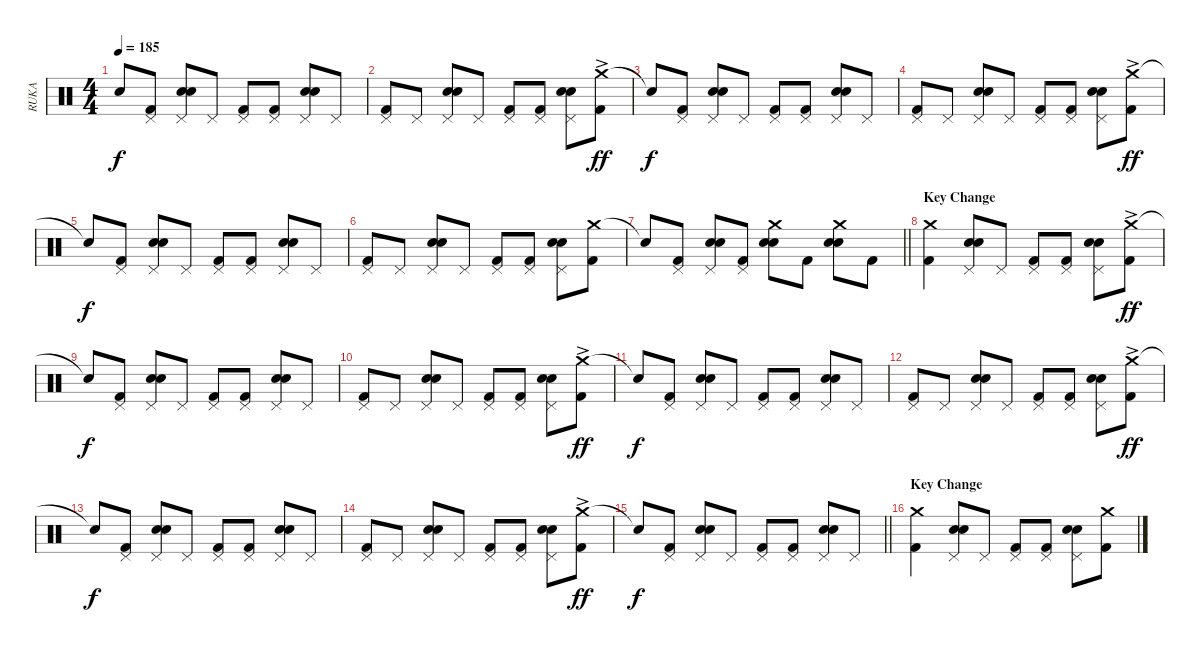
\track ("RUKA" "RUKA") {instrument percussion}
\staff {score}
\articulation defaults
\ts (4 4)
\tempo 185
\clef neutral
\ks c "Snare (hit)"{t}.8{dy f}
("Pedal Hi-Hat (hit)" "Kick (hit) 2").8 ("Pedal Hi-Hat (hit)" "Snare (hit) 2" "Electric Snare (hit)").8 "Pedal Hi-Hat (hit)".8 ("Pedal Hi-Hat (hit)" "Kick (hit) 2").8 ("Pedal Hi-Hat (hit)" "Kick (hit) 2").8 ("Pedal Hi-Hat (hit)" "Snare (hit) 2" "Electric Snare (hit)").8 "Pedal Hi-Hat (hit)".8 |
("Pedal Hi-Hat (hit)" "Kick (hit) 2").8 "Pedal Hi-Hat (hit)".8 ("Pedal Hi-Hat (hit)" "Snare (hit) 2" "Electric Snare (hit)").8 "Pedal Hi-Hat (hit)".8 ("Pedal Hi-Hat (hit)" "Kick (hit) 2").8 ("Pedal Hi-Hat (hit)" "Kick (hit) 2").8 ("Pedal Hi-Hat (hit)" "Snare (hit) 2" "Electric Snare (hit)").8 ("Crash medium (hit)"{ac} "Kick (hit) 2").8{dy ff} |
"Snare (hit)"{t}.8{dy f} ("Pedal Hi-Hat (hit)" "Kick (hit) 2").8 ("Pedal Hi-Hat (hit)" "Snare (hit) 2" "Electric Snare (hit)").8 "Pedal Hi-Hat (hit)".8 ("Pedal Hi-Hat (hit)" "Kick (hit) 2").8 ("Pedal Hi-Hat (hit)" "Kick (hit) 2").8 ("Pedal Hi-Hat (hit)" "Snare (hit) 2" "Electric Snare (hit)").8 "Pedal Hi-Hat (hit)".8 |
("Pedal Hi-Hat (hit)" "Kick (hit) 2").8 "Pedal Hi-Hat (hit)".8 ("Pedal Hi-Hat (hit)" "Snare (hit) 2" "Electric Snare (hit)").8 "Pedal Hi-Hat (hit)".8 ("Pedal Hi-Hat (hit)" "Kick (hit) 2").8 ("Pedal Hi-Hat (hit)" "Kick (hit) 2").8 ("Pedal Hi-Hat (hit)" "Snare (hit) 2" "Electric Snare (hit)").8 ("Crash medium (hit)"{ac} "Kick (hit) 2").8{dy ff} |
"Snare (hit)"{t}.8{dy f} ("Pedal Hi-Hat (hit)" "Kick (hit) 2").8 ("Pedal Hi-Hat (hit)" "Snare (hit) 2" "Electric Snare (hit)").8 "Pedal Hi-Hat (hit)".8 ("Pedal Hi-Hat (hit)" "Kick (hit) 2").8 ("Pedal Hi-Hat (hit)" "Kick (hit) 2").8 ("Pedal Hi-Hat (hit)" "Snare (hit) 2" "Electric Snare (hit)").8 "Pedal Hi-Hat (hit)".8 |
("Pedal Hi-Hat (hit)" "Kick (hit) 2").8 "Pedal Hi-Hat (hit)".8 ("Pedal Hi-Hat (hit)" "Snare (hit) 2" "Electric Snare (hit)").8 "Pedal Hi-Hat (hit)".8 ("Pedal Hi-Hat (hit)" "Kick (hit) 2").8 ("Pedal Hi-Hat (hit)" "Kick (hit) 2").8 ("Pedal Hi-Hat (hit)" "Snare (hit) 2" "Electric Snare (hit)").8 ("Crash medium (hit)" "Kick (hit) 2").8 |
\barLineRight lightlight "Snare (hit)"{t}.8
("Pedal Hi-Hat (hit)" "Kick (hit) 2").8 ("Pedal Hi-Hat (hit)" "Snare (hit) 2" "Electric Snare (hit)").8 ("Pedal Hi-Hat (hit)" "Kick (hit) 2").8 ("Crash medium (hit)" "Snare (hit) 2" "Electric Snare (hit)").8 "Kick (hit) 2".8 ("Crash medium (hit)" "Snare (hit) 2" "Electric Snare (hit)").8 "Kick (hit) 2".8 |
\section ("" "Key Change")
("Crash medium (hit)" "Kick (hit) 2").4 ("Pedal Hi-Hat (hit)" "Snare (hit) 2" "Electric Snare (hit)").8 "Pedal Hi-Hat (hit)".8 ("Pedal Hi-Hat (hit)" "Kick (hit) 2").8 ("Pedal Hi-Hat (hit)" "Kick (hit) 2").8 ("Pedal Hi-Hat (hit)" "Snare (hit) 2" "Electric Snare (hit)").8 ("Crash medium (hit)"{ac} "Kick (hit) 2").8{dy ff} |
"Snare (hit)"{t}.8{dy f} ("Pedal Hi-Hat (hit)" "Kick (hit) 2").8 ("Pedal Hi-Hat (hit)" "Snare (hit) 2" "Electric Snare (hit)").8 "Pedal Hi-Hat (hit)".8 ("Pedal Hi-Hat (hit)" "Kick (hit) 2").8 ("Pedal Hi-Hat (hit)" "Kick (hit) 2").8 ("Pedal Hi-Hat (hit)" "Snare (hit) 2" "Electric Snare (hit)").8 "Pedal Hi-Hat (hit)".8 |
("Pedal Hi-Hat (hit)" "Kick (hit) 2").8 "Pedal Hi-Hat (hit)".8 ("Pedal Hi-Hat (hit)" "Snare (hit) 2" "Electric Snare (hit)").8 "Pedal Hi-Hat (hit)".8 ("Pedal Hi-Hat (hit)" "Kick (hit) 2").8 ("Pedal Hi-Hat (hit)" "Kick (hit) 2").8 ("Pedal Hi-Hat (hit)" "Snare (hit) 2" "Electric Snare (hit)").8 ("Crash medium (hit)"{ac} "Kick (hit) 2").8{dy ff} |
"Snare (hit)"{t}.8{dy f} ("Pedal Hi-Hat (hit)" "Kick (hit) 2").8 ("Pedal Hi-Hat (hit)" "Snare (hit) 2" "Electric Snare (hit)").8 "Pedal Hi-Hat (hit)".8 ("Pedal Hi-Hat (hit)" "Kick (hit) 2").8 ("Pedal Hi-Hat (hit)" "Kick (hit) 2").8 ("Pedal Hi-Hat (hit)" "Snare (hit) 2" "Electric Snare (hit)").8 "Pedal Hi-Hat (hit)".8 |
("Pedal Hi-Hat (hit)" "Kick (hit) 2").8 "Pedal Hi-Hat (hit)".8 ("Pedal Hi-Hat (hit)" "Snare (hit) 2" "Electric Snare (hit)").8 "Pedal Hi-Hat (hit)".8 ("Pedal Hi-Hat (hit)" "Kick (hit) 2").8 ("Pedal Hi-Hat (hit)" "Kick (hit) 2").8 ("Pedal Hi-Hat (hit)" "Snare (hit) 2" "Electric Snare (hit)").8 ("Crash medium (hit)"{ac} "Kick (hit) 2").8{dy ff} |
"Snare (hit)"{t}.8{dy f} ("Pedal Hi-Hat (hit)" "Kick (hit) 2").8 ("Pedal Hi-Hat (hit)" "Snare (hit) 2" "Electric Snare (hit)").8 "Pedal Hi-Hat (hit)".8 ("Pedal Hi-Hat (hit)" "Kick (hit) 2").8 ("Pedal Hi-Hat (hit)" "Kick (hit) 2").8 ("Pedal Hi-Hat (hit)" "Snare (hit) 2" "Electric Snare (hit)").8 "Pedal Hi-Hat (hit)".8 |
("Pedal Hi-Hat (hit)" "Kick (hit) 2").8 "Pedal Hi-Hat (hit)".8 ("Pedal Hi-Hat (hit)" "Snare (hit) 2" "Electric Snare (hit)").8 "Pedal Hi-Hat (hit)".8 ("Pedal Hi-Hat (hit)" "Kick (hit) 2").8 ("Pedal Hi-Hat (hit)" "Kick (hit) 2").8 ("Pedal Hi-Hat (hit)" "Snare (hit) 2" "Electric Snare (hit)").8 ("Crash medium (hit)"{ac} "Kick (hit) 2").8{dy ff} |
\barLineRight lightlight "Snare (hit)"{t}.8{dy f}
("Pedal Hi-Hat (hit)" "Kick (hit) 2").8 ("Pedal Hi-Hat (hit)" "Snare (hit) 2" "Electric Snare (hit)").8 "Pedal Hi-Hat (hit)".8 ("Pedal Hi-Hat (hit)" "Kick (hit) 2").8 ("Pedal Hi-Hat (hit)" "Kick (hit) 2").8 ("Pedal Hi-Hat (hit)" "Snare (hit) 2" "Electric Snare (hit)").8 "Pedal Hi-Hat (hit)".8 |
\section ("" "Key Change")
("Crash medium (hit)" "Kick (hit) 2").4 ("Pedal Hi-Hat (hit)" "Snare (hit) 2" "Electric Snare (hit)").8 "Pedal Hi-Hat (hit)".8 ("Pedal Hi-Hat (hit)" "Kick (hit) 2").8 ("Pedal Hi-Hat (hit)" "Kick (hit) 2").8 ("Pedal Hi-Hat (hit)" "Snare (hit) 2" "Electric Snare (hit)").8 ("Crash medium (hit)" "Kick (hit) 2").8
